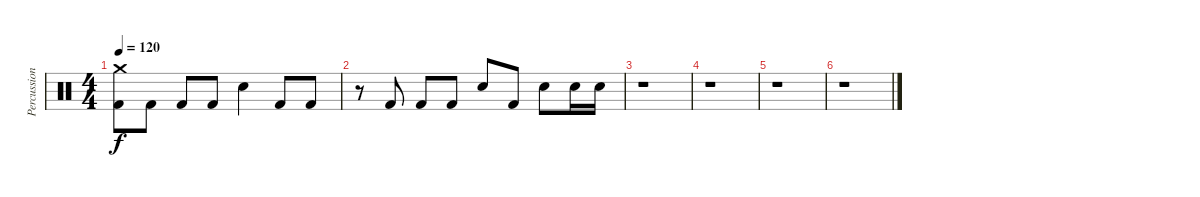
\track ("Percussion" "Percussion") {instrument percussion}
\staff {score}
\articulation defaults
\ts (4 4)
\tempo 120
\clef neutral
\ks c
("Crash medium (hit)" "Kick (hit) 2").8{dy f} "Kick (hit) 2".8 "Kick (hit) 2".8 "Kick (hit) 2".8 "Electric Snare (hit)".4 "Kick (hit) 2".8 "Kick (hit) 2".8 |
r.8 "Kick (hit) 2".8 "Kick (hit) 2".8 "Kick (hit) 2".8 "Electric Snare (hit)".8 "Kick (hit) 2".8 "Electric Snare (hit)".8 "Electric Snare (hit)".16 "Electric Snare (hit)".16 |
r.1 |
r.1 |
r.1 |
r.1
